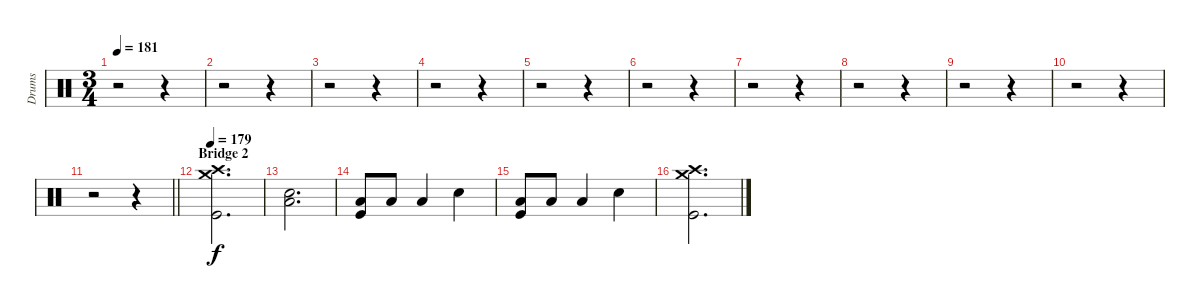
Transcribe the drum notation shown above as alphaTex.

\track ("Drums" "Drums") {instrument percussion}
\staff {score}
\articulation defaults
\ts (3 4)
\tempo 181
\clef neutral
\ks c
r.2{dy f} r.4 |
r.2 r.4 |
r.2 r.4 |
r.2 r.4 |
r.2 r.4 |
r.2 r.4 |
r.2 r.4 |
r.2 r.4 |
r.2 r.4 |
r.2 r.4 |
\barLineRight lightlight
r.2 r.4 |
\section ("" "Bridge 2")
\tempo 179
("Crash high (hit)" "Crash medium (hit)" "Kick (hit)").2{d} |
("Electric Snare (hit)" "Low Floor Tom (hit)").2{d} |
("Low Floor Tom (hit)" "Kick (hit)").8 "Low Tom (hit)".8 "Low Floor Tom (hit)".4 "Electric Snare (hit)".4 |
("Low Floor Tom (hit)" "Kick (hit)").8 "Low Tom (hit)".8 "Low Floor Tom (hit)".4 "Electric Snare (hit)".4 |
("Crash high (hit)" "Crash medium (hit)" "Kick (hit)").2{d}
